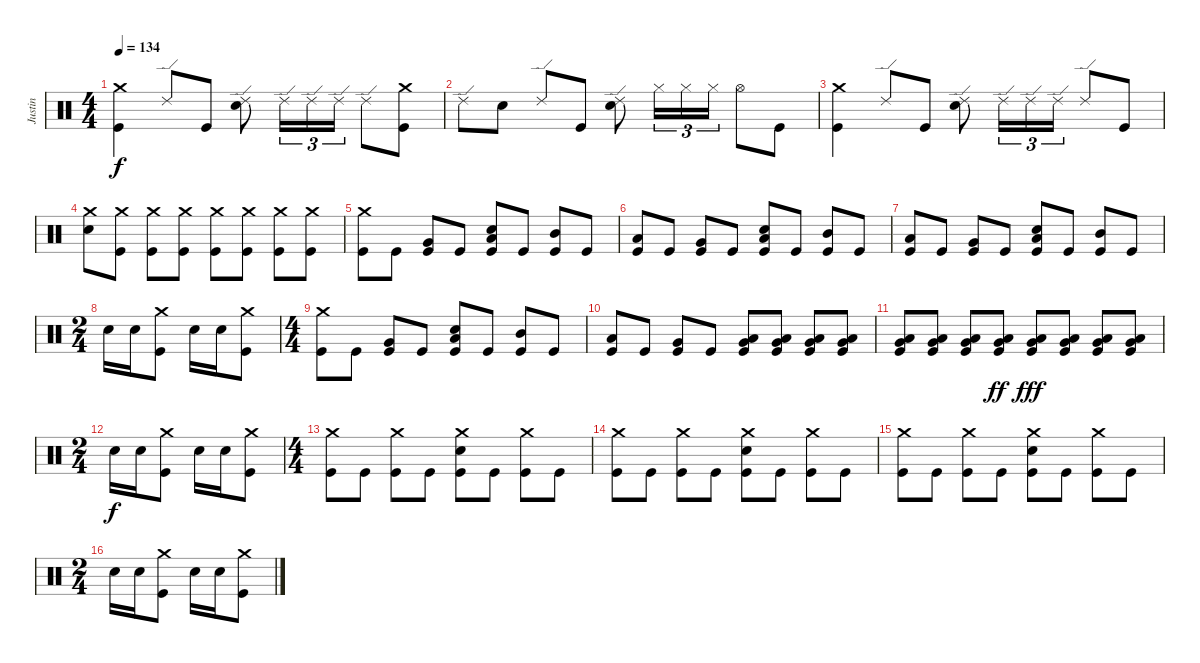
\track ("Justin" "Justin") {instrument percussion}
\staff {score}
\articulation defaults
\ts (4 4)
\tempo 134
\clef neutral
\ks c
("Crash medium (hit)" "Kick (hit)").4{dy f} "Ride (edge) 2".8 "Kick (hit)".8 ("Ride (edge) 2" "Electric Snare (hit)").8 "Ride (edge) 2".16{tu (3 2)} "Ride (edge) 2".16{tu (3 2)} "Ride (edge) 2".16{tu (3 2)} "Ride (edge) 2".8 ("Crash medium (hit)" "Kick (hit)").8 |
"Ride (edge) 2".8 "Electric Snare (hit)".8 "Ride (edge) 2".8 "Kick (hit)".8 ("Ride (edge) 2" "Electric Snare (hit)").8 "Hi-Hat (closed)".16{tu (3 2)} "Hi-Hat (closed)".16{tu (3 2)} "Hi-Hat (closed)".16{tu (3 2)} "Hi-Hat (open)".8 "Kick (hit)".8 |
("Crash medium (hit)" "Kick (hit)").4 "Ride (edge) 2".8 "Kick (hit)".8 ("Ride (edge) 2" "Electric Snare (hit)").8 "Ride (edge) 2".16{tu (3 2)} "Ride (edge) 2".16{tu (3 2)} "Ride (edge) 2".16{tu (3 2)} "Ride (edge) 2".8 "Kick (hit)".8 |
("Crash medium (hit)" "Electric Snare (hit)").8 ("Crash medium (hit)" "Kick (hit)").8 ("Crash medium (hit)" "Kick (hit)").8 ("Crash medium (hit)" "Kick (hit)").8 ("Crash medium (hit)" "Kick (hit)").8 ("Crash medium (hit)" "Kick (hit)").8 ("Crash medium (hit)" "Kick (hit)").8 ("Crash medium (hit)" "Kick (hit)").8 |
("Crash medium (hit)" "Kick (hit)").8 "Kick (hit)".8 ("Very Low Tom (hit)" "Kick (hit)").8 "Kick (hit)".8 ("Low Floor Tom (hit)" "Electric Snare (hit)" "Kick (hit)").8 "Kick (hit)".8 ("Mid Tom (hit)" "Kick (hit)").8 "Kick (hit)".8 |
("Low Tom (hit)" "Kick (hit)").8 "Kick (hit)".8 ("Very Low Tom (hit)" "Kick (hit)").8 "Kick (hit)".8 ("Low Floor Tom (hit)" "Electric Snare (hit)" "Kick (hit)").8 "Kick (hit)".8 ("Mid Tom (hit)" "Kick (hit)").8 "Kick (hit)".8 |
("Low Tom (hit)" "Kick (hit)").8 "Kick (hit)".8 ("Very Low Tom (hit)" "Kick (hit)").8 "Kick (hit)".8 ("Low Floor Tom (hit)" "Electric Snare (hit)" "Kick (hit)").8 "Kick (hit)".8 ("Mid Tom (hit)" "Kick (hit)").8 "Kick (hit)".8 |
\ts (2 4)
"Electric Snare (hit)".16 "Electric Snare (hit)".16 ("Crash medium (hit)" "Kick (hit)").8 "Electric Snare (hit)".16 "Electric Snare (hit)".16 ("Crash medium (hit)" "Kick (hit)").8 |
\ts (4 4)
("Crash medium (hit)" "Kick (hit)").8 "Kick (hit)".8 ("Very Low Tom (hit)" "Kick (hit)").8 "Kick (hit)".8 ("Low Floor Tom (hit)" "Electric Snare (hit)" "Kick (hit)").8 "Kick (hit)".8 ("Mid Tom (hit)" "Kick (hit)").8 "Kick (hit)".8 |
("Low Tom (hit)" "Kick (hit)").8 "Kick (hit)".8 ("Very Low Tom (hit)" "Kick (hit)").8 "Kick (hit)".8 ("Very Low Tom (hit)" "Low Floor Tom (hit)" "Kick (hit)").8 ("Very Low Tom (hit)" "Low Floor Tom (hit)" "Kick (hit)").8 ("Very Low Tom (hit)" "Low Floor Tom (hit)" "Kick (hit)").8 ("Very Low Tom (hit)" "Low Floor Tom (hit)" "Kick (hit)").8 |
("Very Low Tom (hit)" "Low Floor Tom (hit)" "Kick (hit)").8 ("Very Low Tom (hit)" "Low Floor Tom (hit)" "Kick (hit)").8 ("Very Low Tom (hit)" "Low Floor Tom (hit)" "Kick (hit)").8 ("Very Low Tom (hit)" "Low Floor Tom (hit)" "Kick (hit)").8{dy ff} ("Very Low Tom (hit)" "Low Floor Tom (hit)" "Kick (hit)").8{dy fff} ("Very Low Tom (hit)" "Low Floor Tom (hit)" "Kick (hit)").8 ("Very Low Tom (hit)" "Low Floor Tom (hit)" "Kick (hit)").8 ("Very Low Tom (hit)" "Low Floor Tom (hit)" "Kick (hit)").8 |
\ts (2 4)
"Electric Snare (hit)".16{dy f} "Electric Snare (hit)".16 ("Crash medium (hit)" "Kick (hit)").8 "Electric Snare (hit)".16 "Electric Snare (hit)".16 ("Crash medium (hit)" "Kick (hit)").8 |
\ts (4 4)
("Crash medium (hit)" "Kick (hit)").8 "Kick (hit)".8 ("Crash medium (hit)" "Kick (hit)").8 "Kick (hit)".8 ("Crash medium (hit)" "Electric Snare (hit)" "Kick (hit)").8 "Kick (hit)".8 ("Crash medium (hit)" "Kick (hit)").8 "Kick (hit)".8 |
("Crash medium (hit)" "Kick (hit)").8 "Kick (hit)".8 ("Crash medium (hit)" "Kick (hit)").8 "Kick (hit)".8 ("Crash medium (hit)" "Electric Snare (hit)" "Kick (hit)").8 "Kick (hit)".8 ("Crash medium (hit)" "Kick (hit)").8 "Kick (hit)".8 |
("Crash medium (hit)" "Kick (hit)").8 "Kick (hit)".8 ("Crash medium (hit)" "Kick (hit)").8 "Kick (hit)".8 ("Crash medium (hit)" "Electric Snare (hit)" "Kick (hit)").8 "Kick (hit)".8 ("Crash medium (hit)" "Kick (hit)").8 "Kick (hit)".8 |
\ts (2 4)
"Electric Snare (hit)".16 "Electric Snare (hit)".16 ("Crash medium (hit)" "Kick (hit)").8 "Electric Snare (hit)".16 "Electric Snare (hit)".16 ("Crash medium (hit)" "Kick (hit)").8
